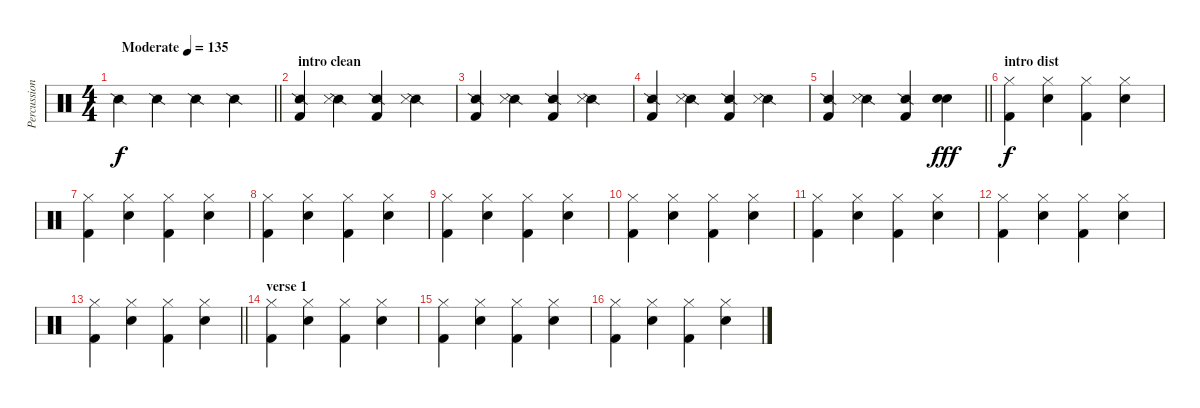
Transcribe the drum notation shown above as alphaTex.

\track ("Percussion" "Percussion") {instrument percussion}
\staff {score}
\articulation defaults
\ts (4 4)
\tempo (135 "Moderate")
\clef neutral
\barLineRight lightlight
\ks c "Snare (side stick) 2".4{dy f} "Snare (side stick) 2".4 "Snare (side stick) 2".4 "Snare (side stick) 2".4
|
\section ("" " intro clean")
("Snare (side stick) 2" "Kick (hit) 2").4 ("Snare (side stick) 2" "Snare (side stick) 3").4 ("Snare (side stick) 2" "Kick (hit) 2").4 ("Snare (side stick) 2" "Snare (side stick) 3").4 |
("Snare (side stick) 2" "Kick (hit) 2").4 ("Snare (side stick) 2" "Snare (side stick) 3").4 ("Snare (side stick) 2" "Kick (hit) 2").4 ("Snare (side stick) 2" "Snare (side stick) 3").4 |
("Snare (side stick) 2" "Kick (hit) 2").4 ("Snare (side stick) 2" "Snare (side stick) 3").4 ("Snare (side stick) 2" "Kick (hit) 2").4 ("Snare (side stick) 2" "Snare (side stick) 3").4 |
\barLineRight lightlight
("Snare (side stick) 2" "Kick (hit) 2").4 ("Snare (side stick) 2" "Snare (side stick) 3").4 ("Snare (side stick) 2" "Kick (hit) 2").4 ("Electric Snare (hit)" "Electric Snare (hit)").4{dy fff} |
\section ("" "intro dist")
("Hi-Hat (closed)" "Kick (hit) 2").4{dy f} ("Hi-Hat (closed)" "Electric Snare (hit)").4 ("Hi-Hat (closed)" "Kick (hit) 2").4 ("Hi-Hat (closed)" "Electric Snare (hit)").4 |
("Hi-Hat (closed)" "Kick (hit) 2").4 ("Hi-Hat (closed)" "Electric Snare (hit)").4 ("Hi-Hat (closed)" "Kick (hit) 2").4 ("Hi-Hat (closed)" "Electric Snare (hit)").4 |
("Hi-Hat (closed)" "Kick (hit) 2").4 ("Hi-Hat (closed)" "Electric Snare (hit)").4 ("Hi-Hat (closed)" "Kick (hit) 2").4 ("Hi-Hat (closed)" "Electric Snare (hit)").4 |
("Hi-Hat (closed)" "Kick (hit) 2").4 ("Hi-Hat (closed)" "Electric Snare (hit)").4 ("Hi-Hat (closed)" "Kick (hit) 2").4 ("Hi-Hat (closed)" "Electric Snare (hit)").4 |
("Hi-Hat (closed)" "Kick (hit) 2").4 ("Hi-Hat (closed)" "Electric Snare (hit)").4 ("Hi-Hat (closed)" "Kick (hit) 2").4 ("Hi-Hat (closed)" "Electric Snare (hit)").4 |
("Hi-Hat (closed)" "Kick (hit) 2").4 ("Hi-Hat (closed)" "Electric Snare (hit)").4 ("Hi-Hat (closed)" "Kick (hit) 2").4 ("Hi-Hat (closed)" "Electric Snare (hit)").4 |
("Hi-Hat (closed)" "Kick (hit) 2").4 ("Hi-Hat (closed)" "Electric Snare (hit)").4 ("Hi-Hat (closed)" "Kick (hit) 2").4 ("Hi-Hat (closed)" "Electric Snare (hit)").4 |
\barLineRight lightlight
("Hi-Hat (closed)" "Kick (hit) 2").4 ("Hi-Hat (closed)" "Electric Snare (hit)").4 ("Hi-Hat (closed)" "Kick (hit) 2").4 ("Hi-Hat (closed)" "Electric Snare (hit)").4 |
\section ("" "verse 1")
("Hi-Hat (closed)" "Kick (hit) 2").4 ("Hi-Hat (closed)" "Electric Snare (hit)").4 ("Hi-Hat (closed)" "Kick (hit) 2").4 ("Hi-Hat (closed)" "Electric Snare (hit)").4 |
("Hi-Hat (closed)" "Kick (hit) 2").4 ("Hi-Hat (closed)" "Electric Snare (hit)").4 ("Hi-Hat (closed)" "Kick (hit) 2").4 ("Hi-Hat (closed)" "Electric Snare (hit)").4 |
("Hi-Hat (closed)" "Kick (hit) 2").4 ("Hi-Hat (closed)" "Electric Snare (hit)").4 ("Hi-Hat (closed)" "Kick (hit) 2").4 ("Hi-Hat (closed)" "Electric Snare (hit)").4
